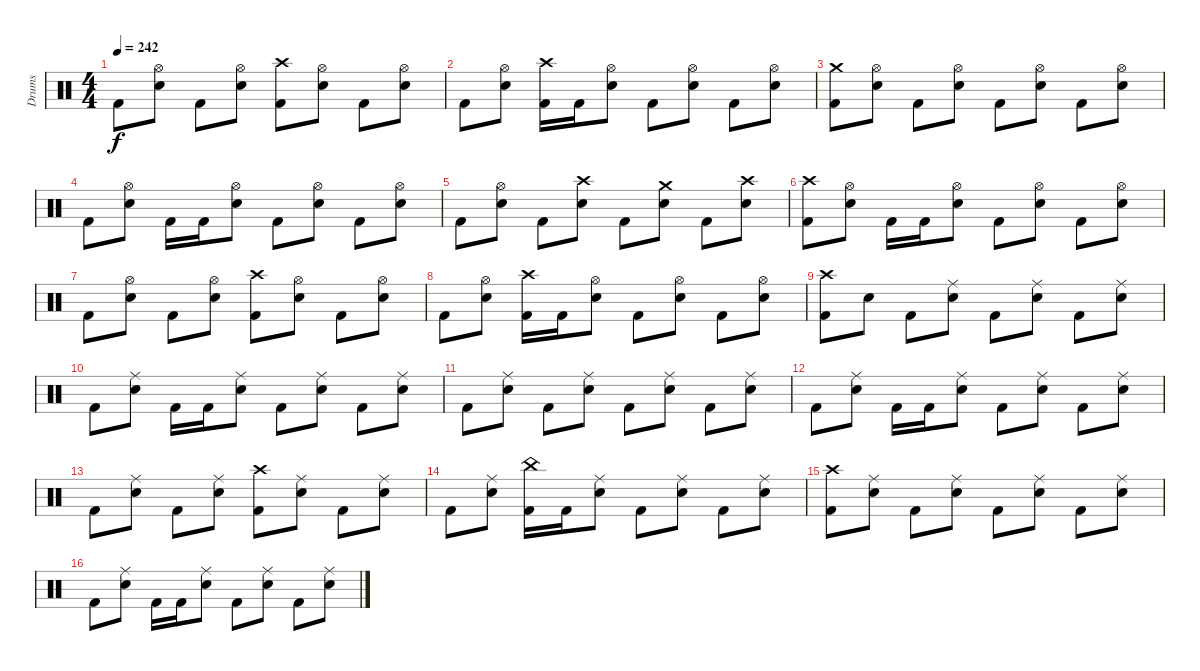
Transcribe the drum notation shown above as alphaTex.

\track ("Drums" "Drums") {instrument percussion}
\staff {score}
\articulation defaults
\ts (4 4)
\tempo 242
\clef neutral
\ks c "Kick (hit) 2".8{dy f}
("Hi-Hat (open)" "Electric Snare (hit)").8 "Kick (hit) 2".8 ("Hi-Hat (open)" "Electric Snare (hit)").8 ("Crash high (hit)" "Kick (hit) 2").8 ("Hi-Hat (open)" "Electric Snare (hit)").8 "Kick (hit) 2".8 ("Hi-Hat (open)" "Electric Snare (hit)").8 |
"Kick (hit) 2".8 ("Hi-Hat (open)" "Electric Snare (hit)").8 ("Crash high (hit)" "Kick (hit) 2").16 "Kick (hit) 2".16 ("Hi-Hat (open)" "Electric Snare (hit)").8 "Kick (hit) 2".8 ("Hi-Hat (open)" "Electric Snare (hit)").8 "Kick (hit) 2".8 ("Hi-Hat (open)" "Electric Snare (hit)").8 |
("Crash medium (hit)" "Kick (hit) 2").8 ("Hi-Hat (open)" "Electric Snare (hit)").8 "Kick (hit) 2".8 ("Hi-Hat (open)" "Electric Snare (hit)").8 "Kick (hit) 2".8 ("Hi-Hat (open)" "Electric Snare (hit)").8 "Kick (hit) 2".8 ("Hi-Hat (open)" "Electric Snare (hit)").8 |
"Kick (hit) 2".8 ("Hi-Hat (open)" "Electric Snare (hit)").8 "Kick (hit) 2".16 "Kick (hit) 2".16 ("Hi-Hat (open)" "Electric Snare (hit)").8 "Kick (hit) 2".8 ("Hi-Hat (open)" "Electric Snare (hit)").8 "Kick (hit) 2".8 ("Hi-Hat (open)" "Electric Snare (hit)").8 |
"Kick (hit) 2".8 ("Hi-Hat (open)" "Electric Snare (hit)").8 "Kick (hit) 2".8 ("Crash high (hit)" "Electric Snare (hit)").8 "Kick (hit) 2".8 ("Crash medium (hit)" "Electric Snare (hit)").8 "Kick (hit) 2".8 ("Crash high (hit)" "Electric Snare (hit)").8 |
("Crash high (hit)" "Kick (hit) 2").8 ("Hi-Hat (open)" "Electric Snare (hit)").8 "Kick (hit) 2".16 "Kick (hit) 2".16 ("Hi-Hat (open)" "Electric Snare (hit)").8 "Kick (hit) 2".8 ("Hi-Hat (open)" "Electric Snare (hit)").8 "Kick (hit) 2".8 ("Hi-Hat (open)" "Electric Snare (hit)").8 |
"Kick (hit) 2".8 ("Hi-Hat (open)" "Electric Snare (hit)").8 "Kick (hit) 2".8 ("Hi-Hat (open)" "Electric Snare (hit)").8 ("Crash high (hit)" "Kick (hit) 2").8 ("Hi-Hat (open)" "Electric Snare (hit)").8 "Kick (hit) 2".8 ("Hi-Hat (open)" "Electric Snare (hit)").8 |
"Kick (hit) 2".8 ("Hi-Hat (open)" "Electric Snare (hit)").8 ("Crash high (hit)" "Kick (hit) 2").16 "Kick (hit) 2".16 ("Hi-Hat (open)" "Electric Snare (hit)").8 "Kick (hit) 2".8 ("Hi-Hat (open)" "Electric Snare (hit)").8 "Kick (hit) 2".8 ("Hi-Hat (open)" "Electric Snare (hit)").8 |
("Crash high (hit)" "Kick (hit) 2").8 "Electric Snare (hit)".8 "Kick (hit) 2".8 ("Ride (middle)" "Electric Snare (hit)").8 "Kick (hit) 2".8 ("Ride (middle)" "Electric Snare (hit)").8 "Kick (hit) 2".8 ("Ride (middle)" "Electric Snare (hit)").8 |
"Kick (hit) 2".8 ("Ride (middle)" "Electric Snare (hit)").8 "Kick (hit) 2".16 "Kick (hit) 2".16 ("Ride (middle)" "Electric Snare (hit)").8 "Kick (hit) 2".8 ("Ride (middle)" "Electric Snare (hit)").8 "Kick (hit) 2".8 ("Ride (middle)" "Electric Snare (hit)").8 |
"Kick (hit) 2".8 ("Ride (middle)" "Electric Snare (hit)").8 "Kick (hit) 2".8 ("Ride (middle)" "Electric Snare (hit)").8 "Kick (hit) 2".8 ("Ride (middle)" "Electric Snare (hit)").8 "Kick (hit) 2".8 ("Ride (middle)" "Electric Snare (hit)").8 |
"Kick (hit) 2".8 ("Ride (middle)" "Electric Snare (hit)").8 "Kick (hit) 2".16 "Kick (hit) 2".16 ("Ride (middle)" "Electric Snare (hit)").8 "Kick (hit) 2".8 ("Ride (middle)" "Electric Snare (hit)").8 "Kick (hit) 2".8 ("Ride (middle)" "Electric Snare (hit)").8 |
"Kick (hit) 2".8 ("Ride (middle)" "Electric Snare (hit)").8 "Kick (hit) 2".8 ("Ride (middle)" "Electric Snare (hit)").8 ("Crash high (hit)" "Kick (hit) 2").8 ("Ride (middle)" "Electric Snare (hit)").8 "Kick (hit) 2".8 ("Ride (middle)" "Electric Snare (hit)").8 |
"Kick (hit) 2".8 ("Ride (middle)" "Electric Snare (hit)").8 ("China (hit)" "Kick (hit) 2").16 "Kick (hit) 2".16 ("Ride (middle)" "Electric Snare (hit)").8 "Kick (hit) 2".8 ("Ride (middle)" "Electric Snare (hit)").8 "Kick (hit) 2".8 ("Ride (middle)" "Electric Snare (hit)").8 |
("Crash high (hit)" "Kick (hit) 2").8 ("Ride (middle)" "Electric Snare (hit)").8 "Kick (hit) 2".8 ("Ride (middle)" "Electric Snare (hit)").8 "Kick (hit) 2".8 ("Ride (middle)" "Electric Snare (hit)").8 "Kick (hit) 2".8 ("Ride (middle)" "Electric Snare (hit)").8 |
"Kick (hit) 2".8 ("Ride (middle)" "Electric Snare (hit)").8 "Kick (hit) 2".16 "Kick (hit) 2".16 ("Ride (middle)" "Electric Snare (hit)").8 "Kick (hit) 2".8 ("Ride (middle)" "Electric Snare (hit)").8 "Kick (hit) 2".8 ("Ride (middle)" "Electric Snare (hit)").8
